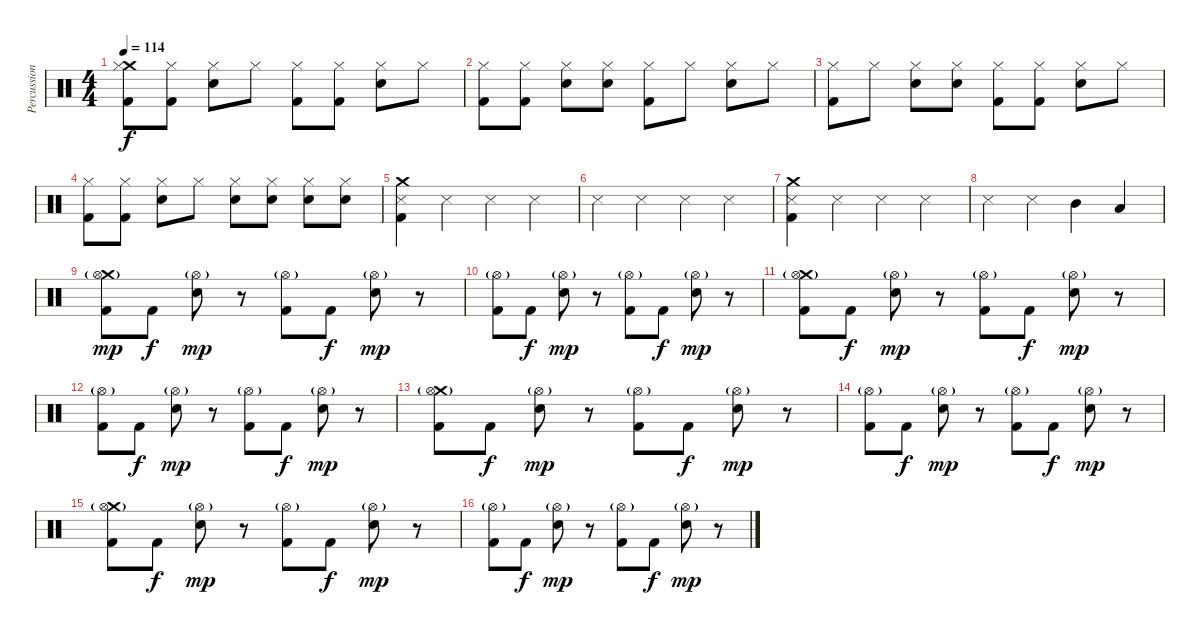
\track ("Percussion" "Percussion") {instrument percussion}
\staff {score}
\articulation defaults
\ts (4 4)
\tempo 114
\clef neutral
\ks c
("Crash medium (hit)" "Kick (hit) 2" "Hi-Hat (closed)").8{dy f} ("Kick (hit) 2" "Hi-Hat (closed)").8 ("Snare (hit) 2" "Hi-Hat (closed)").8 "Hi-Hat (closed)".8 ("Kick (hit) 2" "Hi-Hat (closed)").8 ("Kick (hit) 2" "Hi-Hat (closed)").8 ("Snare (hit) 2" "Hi-Hat (closed)").8 "Hi-Hat (closed)".8 |
("Kick (hit) 2" "Hi-Hat (closed)").8 ("Kick (hit) 2" "Hi-Hat (closed)").8 ("Snare (hit) 2" "Hi-Hat (closed)").8 ("Snare (hit) 2" "Hi-Hat (closed)").8 ("Kick (hit) 2" "Hi-Hat (closed)").8 "Hi-Hat (closed)".8 ("Snare (hit) 2" "Hi-Hat (closed)").8 "Hi-Hat (closed)".8 |
("Kick (hit) 2" "Hi-Hat (closed)").8 "Hi-Hat (closed)".8 ("Snare (hit) 2" "Hi-Hat (closed)").8 ("Snare (hit) 2" "Hi-Hat (closed)").8 ("Kick (hit) 2" "Hi-Hat (closed)").8 ("Kick (hit) 2" "Hi-Hat (closed)").8 ("Snare (hit) 2" "Hi-Hat (closed)").8 "Hi-Hat (closed)".8 |
("Kick (hit) 2" "Hi-Hat (closed)").8 ("Kick (hit) 2" "Hi-Hat (closed)").8 ("Snare (hit) 2" "Hi-Hat (closed)").8 "Hi-Hat (closed)".8 ("Snare (hit) 2" "Hi-Hat (closed)").8 ("Snare (hit) 2" "Hi-Hat (closed)").8 ("Snare (hit) 2" "Hi-Hat (closed)").8 ("Snare (hit) 2" "Hi-Hat (closed)").8 |
("Snare (side stick) 3" "Kick (hit) 2" "Crash medium (hit)").4 "Snare (side stick) 3".4 "Snare (side stick) 3".4 "Snare (side stick) 3".4 |
"Snare (side stick) 3".4 "Snare (side stick) 3".4 "Snare (side stick) 3".4 "Snare (side stick) 3".4 |
("Snare (side stick) 3" "Kick (hit) 2" "Crash medium (hit)").4 "Snare (side stick) 3".4 "Snare (side stick) 3".4 "Snare (side stick) 3".4 |
"Snare (side stick) 3".4 "Snare (side stick) 3".4 "Mid Tom (hit)".4 "Low Tom (hit)".4 |
("Crash medium (hit)" "Kick (hit) 2" "Hi-Hat (open)"{g}).8{dy mp} "Kick (hit) 2".8{dy f} ("Snare (hit) 2" "Hi-Hat (open)"{g}).8{dy mp} r.8 ("Kick (hit) 2" "Hi-Hat (open)"{g}).8 "Kick (hit) 2".8{dy f} ("Snare (hit) 2" "Hi-Hat (open)"{g}).8{dy mp} r.8 |
("Kick (hit) 2" "Hi-Hat (open)"{g}).8 "Kick (hit) 2".8{dy f} ("Snare (hit) 2" "Hi-Hat (open)"{g}).8{dy mp} r.8 ("Kick (hit) 2" "Hi-Hat (open)"{g}).8 "Kick (hit) 2".8{dy f} ("Snare (hit) 2" "Hi-Hat (open)"{g}).8{dy mp} r.8 |
("Crash medium (hit)" "Kick (hit) 2" "Hi-Hat (open)"{g}).8 "Kick (hit) 2".8{dy f} ("Snare (hit) 2" "Hi-Hat (open)"{g}).8{dy mp} r.8 ("Kick (hit) 2" "Hi-Hat (open)"{g}).8 "Kick (hit) 2".8{dy f} ("Snare (hit) 2" "Hi-Hat (open)"{g}).8{dy mp} r.8 |
("Kick (hit) 2" "Hi-Hat (open)"{g}).8 "Kick (hit) 2".8{dy f} ("Snare (hit) 2" "Hi-Hat (open)"{g}).8{dy mp} r.8 ("Kick (hit) 2" "Hi-Hat (open)"{g}).8 "Kick (hit) 2".8{dy f} ("Snare (hit) 2" "Hi-Hat (open)"{g}).8{dy mp} r.8 |
("Crash medium (hit)" "Kick (hit) 2" "Hi-Hat (open)"{g}).8 "Kick (hit) 2".8{dy f} ("Snare (hit) 2" "Hi-Hat (open)"{g}).8{dy mp} r.8 ("Kick (hit) 2" "Hi-Hat (open)"{g}).8 "Kick (hit) 2".8{dy f} ("Snare (hit) 2" "Hi-Hat (open)"{g}).8{dy mp} r.8 |
("Kick (hit) 2" "Hi-Hat (open)"{g}).8 "Kick (hit) 2".8{dy f} ("Snare (hit) 2" "Hi-Hat (open)"{g}).8{dy mp} r.8 ("Kick (hit) 2" "Hi-Hat (open)"{g}).8 "Kick (hit) 2".8{dy f} ("Snare (hit) 2" "Hi-Hat (open)"{g}).8{dy mp} r.8 |
("Crash medium (hit)" "Kick (hit) 2" "Hi-Hat (open)"{g}).8 "Kick (hit) 2".8{dy f} ("Snare (hit) 2" "Hi-Hat (open)"{g}).8{dy mp} r.8 ("Kick (hit) 2" "Hi-Hat (open)"{g}).8 "Kick (hit) 2".8{dy f} ("Snare (hit) 2" "Hi-Hat (open)"{g}).8{dy mp} r.8 |
("Kick (hit) 2" "Hi-Hat (open)"{g}).8 "Kick (hit) 2".8{dy f} ("Snare (hit) 2" "Hi-Hat (open)"{g}).8{dy mp} r.8 ("Kick (hit) 2" "Hi-Hat (open)"{g}).8 "Kick (hit) 2".8{dy f} ("Snare (hit) 2" "Hi-Hat (open)"{g}).8{dy mp} r.8
